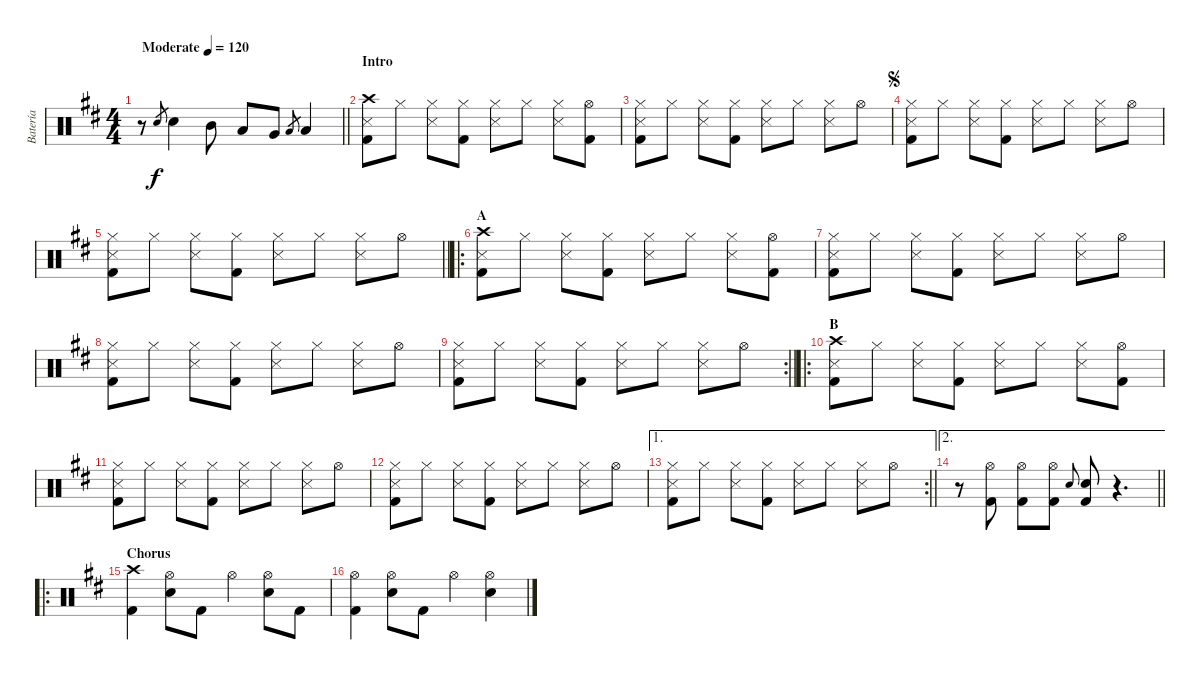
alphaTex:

\track ("Batería" "Batería") {instrument percussion}
\staff {score}
\articulation defaults
\ts (4 4)
\tempo (120 "Moderate")
\clef neutral
\barLineRight lightlight
\ks bminor
r.8{dy f} "Snare (hit) 2".8{gr} "Snare (hit) 2".4 "Mid Tom (hit)".8 "Low Tom (hit)".8 "Very Low Tom (hit)".8 "Low Floor Tom (hit)".8{gr} "Low Floor Tom (hit)".4 |
\section ("" "Intro")
("Crash high (hit)" "Snare (side stick) 3" "Kick (hit) 2").8 "Hi-Hat (closed)".8 ("Hi-Hat (closed)" "Snare (side stick) 3").8 ("Hi-Hat (closed)" "Kick (hit) 2").8 ("Hi-Hat (closed)" "Snare (side stick) 3").8 "Hi-Hat (closed)".8 ("Hi-Hat (closed)" "Snare (side stick) 3").8 ("Hi-Hat (open)" "Kick (hit) 2").8 |
("Hi-Hat (closed)" "Snare (side stick) 3" "Kick (hit) 2").8 "Hi-Hat (closed)".8 ("Hi-Hat (closed)" "Snare (side stick) 3").8 ("Hi-Hat (closed)" "Kick (hit) 2").8 ("Hi-Hat (closed)" "Snare (side stick) 3").8 "Hi-Hat (closed)".8 ("Hi-Hat (closed)" "Snare (side stick) 3").8 "Hi-Hat (open)".8 |
\jump segno
("Hi-Hat (closed)" "Snare (side stick) 3" "Kick (hit) 2").8 "Hi-Hat (closed)".8 ("Hi-Hat (closed)" "Snare (side stick) 3").8 ("Hi-Hat (closed)" "Kick (hit) 2").8 ("Hi-Hat (closed)" "Snare (side stick) 3").8 "Hi-Hat (closed)".8 ("Hi-Hat (closed)" "Snare (side stick) 3").8 "Hi-Hat (open)".8 |
\barLineRight lightlight
("Hi-Hat (closed)" "Snare (side stick) 3" "Kick (hit) 2").8 "Hi-Hat (closed)".8 ("Hi-Hat (closed)" "Snare (side stick) 3").8 ("Hi-Hat (closed)" "Kick (hit) 2").8 ("Hi-Hat (closed)" "Snare (side stick) 3").8 "Hi-Hat (closed)".8 ("Hi-Hat (closed)" "Snare (side stick) 3").8 "Hi-Hat (open)".8 |
\ro
\section ("" "A")
("Crash high (hit)" "Snare (side stick) 3" "Kick (hit) 2").8 "Hi-Hat (closed)".8 ("Hi-Hat (closed)" "Snare (side stick) 3").8 ("Hi-Hat (closed)" "Kick (hit) 2").8 ("Hi-Hat (closed)" "Snare (side stick) 3").8 "Hi-Hat (closed)".8 ("Hi-Hat (closed)" "Snare (side stick) 3").8 ("Hi-Hat (open)" "Kick (hit) 2").8 |
("Hi-Hat (closed)" "Snare (side stick) 3" "Kick (hit) 2").8 "Hi-Hat (closed)".8 ("Hi-Hat (closed)" "Snare (side stick) 3").8 ("Hi-Hat (closed)" "Kick (hit) 2").8 ("Hi-Hat (closed)" "Snare (side stick) 3").8 "Hi-Hat (closed)".8 ("Hi-Hat (closed)" "Snare (side stick) 3").8 "Hi-Hat (open)".8 |
("Hi-Hat (closed)" "Snare (side stick) 3" "Kick (hit) 2").8 "Hi-Hat (closed)".8 ("Hi-Hat (closed)" "Snare (side stick) 3").8 ("Hi-Hat (closed)" "Kick (hit) 2").8 ("Hi-Hat (closed)" "Snare (side stick) 3").8 "Hi-Hat (closed)".8 ("Hi-Hat (closed)" "Snare (side stick) 3").8 "Hi-Hat (open)".8 |
\rc 2
\barLineRight lightlight
("Hi-Hat (closed)" "Snare (side stick) 3" "Kick (hit) 2").8 "Hi-Hat (closed)".8 ("Hi-Hat (closed)" "Snare (side stick) 3").8 ("Hi-Hat (closed)" "Kick (hit) 2").8 ("Hi-Hat (closed)" "Snare (side stick) 3").8 "Hi-Hat (closed)".8 ("Hi-Hat (closed)" "Snare (side stick) 3").8 "Hi-Hat (open)".8 |
\ro
\section ("" "B")
("Crash high (hit)" "Snare (side stick) 3" "Kick (hit) 2").8 "Hi-Hat (closed)".8 ("Hi-Hat (closed)" "Snare (side stick) 3").8 ("Hi-Hat (closed)" "Kick (hit) 2").8 ("Hi-Hat (closed)" "Snare (side stick) 3").8 "Hi-Hat (closed)".8 ("Hi-Hat (closed)" "Snare (side stick) 3").8 ("Hi-Hat (open)" "Kick (hit) 2").8 |
("Hi-Hat (closed)" "Snare (side stick) 3" "Kick (hit) 2").8 "Hi-Hat (closed)".8 ("Hi-Hat (closed)" "Snare (side stick) 3").8 ("Hi-Hat (closed)" "Kick (hit) 2").8 ("Hi-Hat (closed)" "Snare (side stick) 3").8 "Hi-Hat (closed)".8 ("Hi-Hat (closed)" "Snare (side stick) 3").8 "Hi-Hat (open)".8 |
("Hi-Hat (closed)" "Snare (side stick) 3" "Kick (hit) 2").8 "Hi-Hat (closed)".8 ("Hi-Hat (closed)" "Snare (side stick) 3").8 ("Hi-Hat (closed)" "Kick (hit) 2").8 ("Hi-Hat (closed)" "Snare (side stick) 3").8 "Hi-Hat (closed)".8 ("Hi-Hat (closed)" "Snare (side stick) 3").8 "Hi-Hat (open)".8 |
\ae 1
\rc 2
\barLineRight lightlight
("Hi-Hat (closed)" "Snare (side stick) 3" "Kick (hit) 2").8 "Hi-Hat (closed)".8 ("Hi-Hat (closed)" "Snare (side stick) 3").8 ("Hi-Hat (closed)" "Kick (hit) 2").8 ("Hi-Hat (closed)" "Snare (side stick) 3").8 "Hi-Hat (closed)".8 ("Hi-Hat (closed)" "Snare (side stick) 3").8 "Hi-Hat (open)".8 |
\ae 2
\barLineRight lightlight
r.8 ("Hi-Hat (open)" "Kick (hit) 2").8 ("Hi-Hat (open)" "Kick (hit) 2").8 ("Hi-Hat (open)" "Kick (hit) 2").8 "Snare (hit)"{x}.8{gr onbeat} ("Snare (hit)" "Kick (hit) 2").8 r.4{d} |
\ro
\section ("" "Chorus")
("Crash high (hit)" "Kick (hit) 2").4 ("Hi-Hat (open)" "Snare (hit) 2").8 "Kick (hit) 2".8 "Hi-Hat (open)".4 ("Hi-Hat (open)" "Snare (hit) 2").8 "Kick (hit) 2".8 |
("Hi-Hat (open)" "Kick (hit) 2").4 ("Hi-Hat (open)" "Snare (hit) 2").8 "Kick (hit) 2".8 "Hi-Hat (open)".4 ("Hi-Hat (open)" "Snare (hit) 2").4
